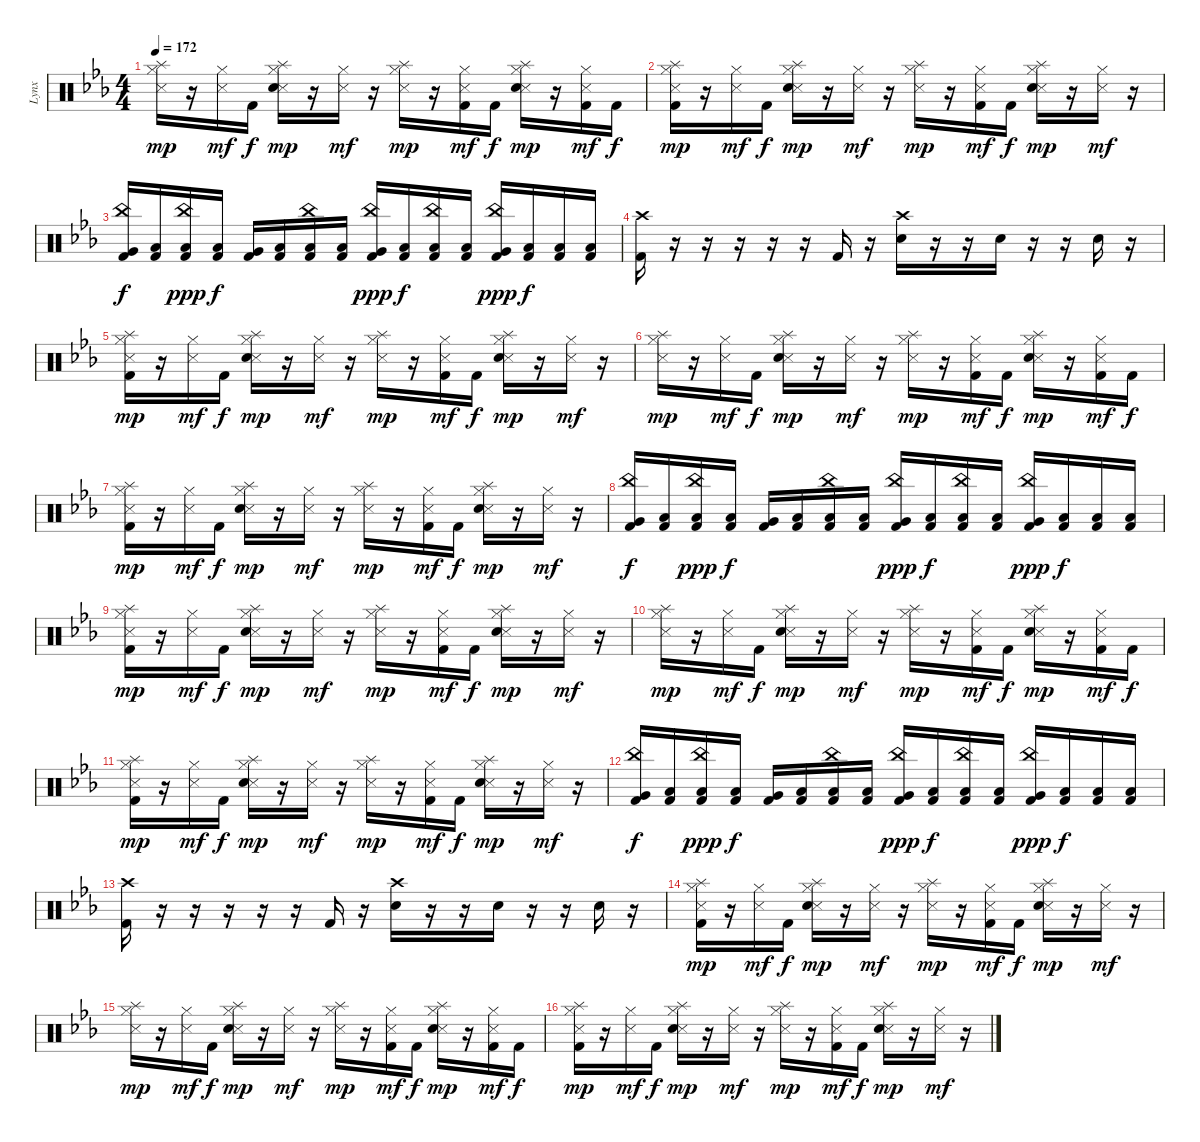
\track ("Lynx" "Lynx") {instrument percussion}
\staff {score}
\articulation defaults
\ts (4 4)
\tempo 172
\clef neutral
\ks eb
("Hi-Hat (closed)" "Snare (side stick) 3" "Splash (hit)").16{dy mp} r.16 ("Hi-Hat (closed)" "Snare (side stick) 3").16{dy mf} "Kick (hit) 2".16{dy f} ("Hi-Hat (closed)" "Snare (side stick) 3" "Splash (hit)" "Electric Snare (hit)").16{dy mp} r.16 ("Hi-Hat (closed)" "Snare (side stick) 3").16{dy mf} r.16 ("Hi-Hat (closed)" "Snare (side stick) 3" "Splash (hit)").16{dy mp} r.16 ("Hi-Hat (closed)" "Snare (side stick) 3" "Kick (hit) 2").16{dy mf} "Kick (hit) 2".16{dy f} ("Hi-Hat (closed)" "Snare (side stick) 3" "Splash (hit)" "Electric Snare (hit)").16{dy mp} r.16 ("Hi-Hat (closed)" "Snare (side stick) 3" "Kick (hit) 2").16{dy mf} "Kick (hit) 2".16{dy f} |
("Hi-Hat (closed)" "Snare (side stick) 3" "Splash (hit)" "Kick (hit) 2").16{dy mp} r.16 ("Hi-Hat (closed)" "Snare (side stick) 3").16{dy mf} "Kick (hit) 2".16{dy f} ("Hi-Hat (closed)" "Snare (side stick) 3" "Splash (hit)" "Electric Snare (hit)").16{dy mp} r.16 ("Hi-Hat (closed)" "Snare (side stick) 3").16{dy mf} r.16 ("Hi-Hat (closed)" "Snare (side stick) 3" "Splash (hit)").16{dy mp} r.16 ("Hi-Hat (closed)" "Snare (side stick) 3" "Kick (hit) 2").16{dy mf} "Kick (hit) 2".16{dy f} ("Hi-Hat (closed)" "Snare (side stick) 3" "Splash (hit)" "Electric Snare (hit)").16{dy mp} r.16 ("Hi-Hat (closed)" "Snare (side stick) 3").16{dy mf} r.16 |
("China (hit)" "Very Low Tom (hit)" "Kick (hit) 2").16{dy f} ("Low Floor Tom (hit)" "Kick (hit) 2").16 ("China (hit)" "Low Floor Tom (hit)" "Kick (hit) 2").16{dy ppp} ("Low Floor Tom (hit)" "Kick (hit) 2").16{dy f} ("Very Low Tom (hit)" "Kick (hit) 2").16 ("Low Floor Tom (hit)" "Kick (hit) 2").16 ("China (hit)" "Low Floor Tom (hit)" "Kick (hit) 2").16 ("Low Floor Tom (hit)" "Kick (hit) 2").16 ("China (hit)" "Very Low Tom (hit)" "Kick (hit) 2").16{dy ppp} ("Low Floor Tom (hit)" "Kick (hit) 2").16{dy f} ("China (hit)" "Low Floor Tom (hit)" "Kick (hit) 2").16 ("Low Floor Tom (hit)" "Kick (hit) 2").16 ("China (hit)" "Very Low Tom (hit)" "Kick (hit) 2").16{dy ppp} ("Low Floor Tom (hit)" "Kick (hit) 2").16{dy f} ("Low Floor Tom (hit)" "Kick (hit) 2").16 ("Low Floor Tom (hit)" "Kick (hit) 2").16 |
("Crash high (hit)" "Kick (hit) 2").16 r.16 r.16 r.16 r.16 r.16 "Kick (hit) 2".16 r.16 ("Crash high (hit)" "Electric Snare (hit)").16 r.16 r.16 "Electric Snare (hit)".16 r.16 r.16 "Electric Snare (hit)".16 r.16 |
("Hi-Hat (closed)" "Snare (side stick) 3" "Splash (hit)" "Kick (hit) 2").16{dy mp} r.16 ("Hi-Hat (closed)" "Snare (side stick) 3").16{dy mf} "Kick (hit) 2".16{dy f} ("Hi-Hat (closed)" "Snare (side stick) 3" "Splash (hit)" "Electric Snare (hit)").16{dy mp} r.16 ("Hi-Hat (closed)" "Snare (side stick) 3").16{dy mf} r.16 ("Hi-Hat (closed)" "Snare (side stick) 3" "Splash (hit)").16{dy mp} r.16 ("Hi-Hat (closed)" "Snare (side stick) 3" "Kick (hit) 2").16{dy mf} "Kick (hit) 2".16{dy f} ("Hi-Hat (closed)" "Snare (side stick) 3" "Splash (hit)" "Electric Snare (hit)").16{dy mp} r.16 ("Hi-Hat (closed)" "Snare (side stick) 3").16{dy mf} r.16 |
("Hi-Hat (closed)" "Snare (side stick) 3" "Splash (hit)").16{dy mp} r.16 ("Hi-Hat (closed)" "Snare (side stick) 3").16{dy mf} "Kick (hit) 2".16{dy f} ("Hi-Hat (closed)" "Snare (side stick) 3" "Splash (hit)" "Electric Snare (hit)").16{dy mp} r.16 ("Hi-Hat (closed)" "Snare (side stick) 3").16{dy mf} r.16 ("Hi-Hat (closed)" "Snare (side stick) 3" "Splash (hit)").16{dy mp} r.16 ("Hi-Hat (closed)" "Snare (side stick) 3" "Kick (hit) 2").16{dy mf} "Kick (hit) 2".16{dy f} ("Hi-Hat (closed)" "Snare (side stick) 3" "Splash (hit)" "Electric Snare (hit)").16{dy mp} r.16 ("Hi-Hat (closed)" "Snare (side stick) 3" "Kick (hit) 2").16{dy mf} "Kick (hit) 2".16{dy f} |
("Hi-Hat (closed)" "Snare (side stick) 3" "Splash (hit)" "Kick (hit) 2").16{dy mp} r.16 ("Hi-Hat (closed)" "Snare (side stick) 3").16{dy mf} "Kick (hit) 2".16{dy f} ("Hi-Hat (closed)" "Snare (side stick) 3" "Splash (hit)" "Electric Snare (hit)").16{dy mp} r.16 ("Hi-Hat (closed)" "Snare (side stick) 3").16{dy mf} r.16 ("Hi-Hat (closed)" "Snare (side stick) 3" "Splash (hit)").16{dy mp} r.16 ("Hi-Hat (closed)" "Snare (side stick) 3" "Kick (hit) 2").16{dy mf} "Kick (hit) 2".16{dy f} ("Hi-Hat (closed)" "Snare (side stick) 3" "Splash (hit)" "Electric Snare (hit)").16{dy mp} r.16 ("Hi-Hat (closed)" "Snare (side stick) 3").16{dy mf} r.16 |
("China (hit)" "Very Low Tom (hit)" "Kick (hit) 2").16{dy f} ("Low Floor Tom (hit)" "Kick (hit) 2").16 ("China (hit)" "Low Floor Tom (hit)" "Kick (hit) 2").16{dy ppp} ("Low Floor Tom (hit)" "Kick (hit) 2").16{dy f} ("Very Low Tom (hit)" "Kick (hit) 2").16 ("Low Floor Tom (hit)" "Kick (hit) 2").16 ("China (hit)" "Low Floor Tom (hit)" "Kick (hit) 2").16 ("Low Floor Tom (hit)" "Kick (hit) 2").16 ("China (hit)" "Very Low Tom (hit)" "Kick (hit) 2").16{dy ppp} ("Low Floor Tom (hit)" "Kick (hit) 2").16{dy f} ("China (hit)" "Low Floor Tom (hit)" "Kick (hit) 2").16 ("Low Floor Tom (hit)" "Kick (hit) 2").16 ("China (hit)" "Very Low Tom (hit)" "Kick (hit) 2").16{dy ppp} ("Low Floor Tom (hit)" "Kick (hit) 2").16{dy f} ("Low Floor Tom (hit)" "Kick (hit) 2").16 ("Low Floor Tom (hit)" "Kick (hit) 2").16 |
("Hi-Hat (closed)" "Snare (side stick) 3" "Splash (hit)" "Kick (hit) 2").16{dy mp} r.16 ("Hi-Hat (closed)" "Snare (side stick) 3").16{dy mf} "Kick (hit) 2".16{dy f} ("Hi-Hat (closed)" "Snare (side stick) 3" "Splash (hit)" "Electric Snare (hit)").16{dy mp} r.16 ("Hi-Hat (closed)" "Snare (side stick) 3").16{dy mf} r.16 ("Hi-Hat (closed)" "Snare (side stick) 3" "Splash (hit)").16{dy mp} r.16 ("Hi-Hat (closed)" "Snare (side stick) 3" "Kick (hit) 2").16{dy mf} "Kick (hit) 2".16{dy f} ("Hi-Hat (closed)" "Snare (side stick) 3" "Splash (hit)" "Electric Snare (hit)").16{dy mp} r.16 ("Hi-Hat (closed)" "Snare (side stick) 3").16{dy mf} r.16 |
("Hi-Hat (closed)" "Snare (side stick) 3" "Splash (hit)").16{dy mp} r.16 ("Hi-Hat (closed)" "Snare (side stick) 3").16{dy mf} "Kick (hit) 2".16{dy f} ("Hi-Hat (closed)" "Snare (side stick) 3" "Splash (hit)" "Electric Snare (hit)").16{dy mp} r.16 ("Hi-Hat (closed)" "Snare (side stick) 3").16{dy mf} r.16 ("Hi-Hat (closed)" "Snare (side stick) 3" "Splash (hit)").16{dy mp} r.16 ("Hi-Hat (closed)" "Snare (side stick) 3" "Kick (hit) 2").16{dy mf} "Kick (hit) 2".16{dy f} ("Hi-Hat (closed)" "Snare (side stick) 3" "Splash (hit)" "Electric Snare (hit)").16{dy mp} r.16 ("Hi-Hat (closed)" "Snare (side stick) 3" "Kick (hit) 2").16{dy mf} "Kick (hit) 2".16{dy f} |
("Hi-Hat (closed)" "Snare (side stick) 3" "Splash (hit)" "Kick (hit) 2").16{dy mp} r.16 ("Hi-Hat (closed)" "Snare (side stick) 3").16{dy mf} "Kick (hit) 2".16{dy f} ("Hi-Hat (closed)" "Snare (side stick) 3" "Splash (hit)" "Electric Snare (hit)").16{dy mp} r.16 ("Hi-Hat (closed)" "Snare (side stick) 3").16{dy mf} r.16 ("Hi-Hat (closed)" "Snare (side stick) 3" "Splash (hit)").16{dy mp} r.16 ("Hi-Hat (closed)" "Snare (side stick) 3" "Kick (hit) 2").16{dy mf} "Kick (hit) 2".16{dy f} ("Hi-Hat (closed)" "Snare (side stick) 3" "Splash (hit)" "Electric Snare (hit)").16{dy mp} r.16 ("Hi-Hat (closed)" "Snare (side stick) 3").16{dy mf} r.16 |
("China (hit)" "Very Low Tom (hit)" "Kick (hit) 2").16{dy f} ("Low Floor Tom (hit)" "Kick (hit) 2").16 ("China (hit)" "Low Floor Tom (hit)" "Kick (hit) 2").16{dy ppp} ("Low Floor Tom (hit)" "Kick (hit) 2").16{dy f} ("Very Low Tom (hit)" "Kick (hit) 2").16 ("Low Floor Tom (hit)" "Kick (hit) 2").16 ("China (hit)" "Low Floor Tom (hit)" "Kick (hit) 2").16 ("Low Floor Tom (hit)" "Kick (hit) 2").16 ("China (hit)" "Very Low Tom (hit)" "Kick (hit) 2").16{dy ppp} ("Low Floor Tom (hit)" "Kick (hit) 2").16{dy f} ("China (hit)" "Low Floor Tom (hit)" "Kick (hit) 2").16 ("Low Floor Tom (hit)" "Kick (hit) 2").16 ("China (hit)" "Very Low Tom (hit)" "Kick (hit) 2").16{dy ppp} ("Low Floor Tom (hit)" "Kick (hit) 2").16{dy f} ("Low Floor Tom (hit)" "Kick (hit) 2").16 ("Low Floor Tom (hit)" "Kick (hit) 2").16 |
("Crash high (hit)" "Kick (hit) 2").16 r.16 r.16 r.16 r.16 r.16 "Kick (hit) 2".16 r.16 ("Crash high (hit)" "Electric Snare (hit)").16 r.16 r.16 "Electric Snare (hit)".16 r.16 r.16 "Electric Snare (hit)".16 r.16 |
("Hi-Hat (closed)" "Snare (side stick) 3" "Splash (hit)" "Kick (hit) 2").16{dy mp} r.16 ("Hi-Hat (closed)" "Snare (side stick) 3").16{dy mf} "Kick (hit) 2".16{dy f} ("Hi-Hat (closed)" "Snare (side stick) 3" "Splash (hit)" "Electric Snare (hit)").16{dy mp} r.16 ("Hi-Hat (closed)" "Snare (side stick) 3").16{dy mf} r.16 ("Hi-Hat (closed)" "Snare (side stick) 3" "Splash (hit)").16{dy mp} r.16 ("Hi-Hat (closed)" "Snare (side stick) 3" "Kick (hit) 2").16{dy mf} "Kick (hit) 2".16{dy f} ("Hi-Hat (closed)" "Snare (side stick) 3" "Splash (hit)" "Electric Snare (hit)").16{dy mp} r.16 ("Hi-Hat (closed)" "Snare (side stick) 3").16{dy mf} r.16 |
("Hi-Hat (closed)" "Snare (side stick) 3" "Splash (hit)").16{dy mp} r.16 ("Hi-Hat (closed)" "Snare (side stick) 3").16{dy mf} "Kick (hit) 2".16{dy f} ("Hi-Hat (closed)" "Snare (side stick) 3" "Splash (hit)" "Electric Snare (hit)").16{dy mp} r.16 ("Hi-Hat (closed)" "Snare (side stick) 3").16{dy mf} r.16 ("Hi-Hat (closed)" "Snare (side stick) 3" "Splash (hit)").16{dy mp} r.16 ("Hi-Hat (closed)" "Snare (side stick) 3" "Kick (hit) 2").16{dy mf} "Kick (hit) 2".16{dy f} ("Hi-Hat (closed)" "Snare (side stick) 3" "Splash (hit)" "Electric Snare (hit)").16{dy mp} r.16 ("Hi-Hat (closed)" "Snare (side stick) 3" "Kick (hit) 2").16{dy mf} "Kick (hit) 2".16{dy f} |
("Hi-Hat (closed)" "Snare (side stick) 3" "Splash (hit)" "Kick (hit) 2").16{dy mp} r.16 ("Hi-Hat (closed)" "Snare (side stick) 3").16{dy mf} "Kick (hit) 2".16{dy f} ("Hi-Hat (closed)" "Snare (side stick) 3" "Splash (hit)" "Electric Snare (hit)").16{dy mp} r.16 ("Hi-Hat (closed)" "Snare (side stick) 3").16{dy mf} r.16 ("Hi-Hat (closed)" "Snare (side stick) 3" "Splash (hit)").16{dy mp} r.16 ("Hi-Hat (closed)" "Snare (side stick) 3" "Kick (hit) 2").16{dy mf} "Kick (hit) 2".16{dy f} ("Hi-Hat (closed)" "Snare (side stick) 3" "Splash (hit)" "Electric Snare (hit)").16{dy mp} r.16 ("Hi-Hat (closed)" "Snare (side stick) 3").16{dy mf} r.16
